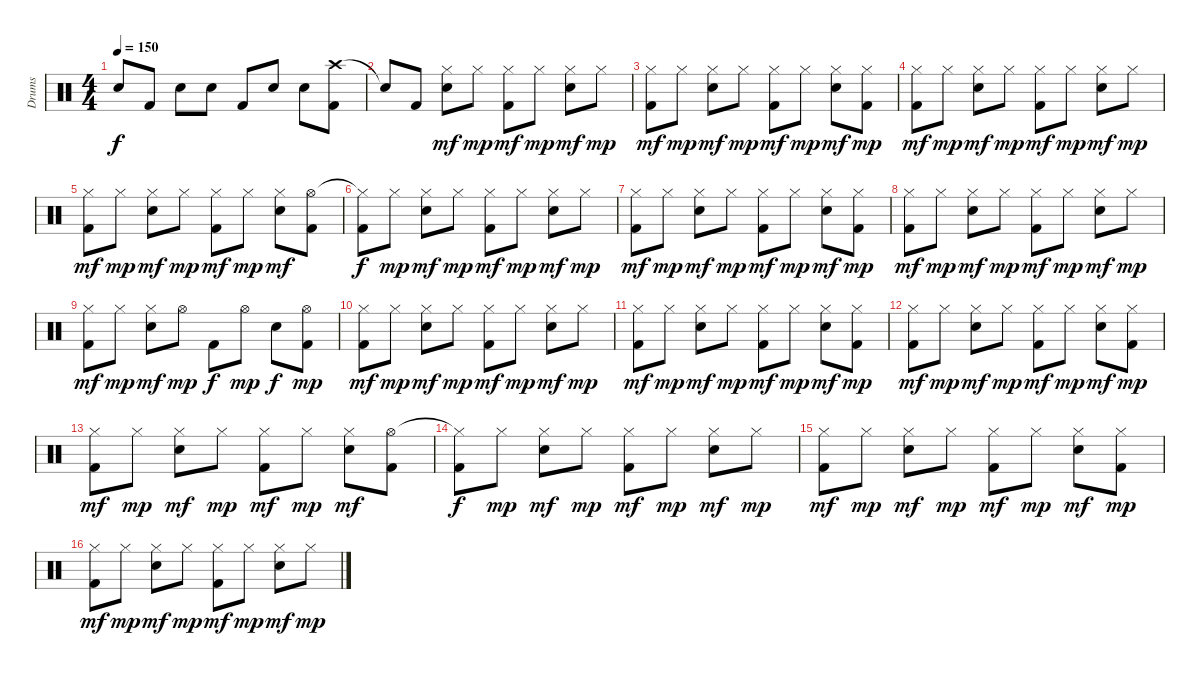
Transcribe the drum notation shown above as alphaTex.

\track ("Drums" "Drums") {instrument percussion}
\staff {score}
\articulation defaults
\ts (4 4)
\tempo 150
\clef neutral
\ks c "Electric Snare (hit)".8{dy f} "Kick (hit) 2".8 "Electric Snare (hit)".8 "Electric Snare (hit)".8 "Kick (hit) 2".8 "Electric Snare (hit)".8 "Electric Snare (hit)".8
("Crash high (hit)" "Kick (hit) 2").8 |
"Snare (hit)"{t}.8 "Kick (hit) 2".8 ("Hi-Hat (closed)" "Electric Snare (hit)").8{dy mf} "Hi-Hat (closed)".8{dy mp} ("Hi-Hat (closed)" "Kick (hit) 2").8{dy mf} "Hi-Hat (closed)".8{dy mp} ("Hi-Hat (closed)" "Electric Snare (hit)").8{dy mf} "Hi-Hat (closed)".8{dy mp} |
("Hi-Hat (closed)" "Kick (hit) 2").8{dy mf} "Hi-Hat (closed)".8{dy mp} ("Hi-Hat (closed)" "Electric Snare (hit)").8{dy mf} "Hi-Hat (closed)".8{dy mp} ("Hi-Hat (closed)" "Kick (hit) 2").8{dy mf} "Hi-Hat (closed)".8{dy mp} ("Hi-Hat (closed)" "Electric Snare (hit)").8{dy mf} ("Hi-Hat (closed)" "Kick (hit) 2").8{dy mp} |
("Hi-Hat (closed)" "Kick (hit) 2").8{dy mf} "Hi-Hat (closed)".8{dy mp} ("Hi-Hat (closed)" "Electric Snare (hit)").8{dy mf} "Hi-Hat (closed)".8{dy mp} ("Hi-Hat (closed)" "Kick (hit) 2").8{dy mf} "Hi-Hat (closed)".8{dy mp} ("Hi-Hat (closed)" "Electric Snare (hit)").8{dy mf} "Hi-Hat (closed)".8{dy mp} |
("Hi-Hat (closed)" "Kick (hit) 2").8{dy mf} "Hi-Hat (closed)".8{dy mp} ("Hi-Hat (closed)" "Electric Snare (hit)").8{dy mf} "Hi-Hat (closed)".8{dy mp} ("Hi-Hat (closed)" "Kick (hit) 2").8{dy mf} "Hi-Hat (closed)".8{dy mp} ("Hi-Hat (closed)" "Electric Snare (hit)").8{dy mf} ("Hi-Hat (open)" "Kick (hit) 2").8 |
("Hi-Hat (closed)"{t} "Kick (hit) 2").8{dy f} "Hi-Hat (closed)".8{dy mp} ("Hi-Hat (closed)" "Electric Snare (hit)").8{dy mf} "Hi-Hat (closed)".8{dy mp} ("Hi-Hat (closed)" "Kick (hit) 2").8{dy mf} "Hi-Hat (closed)".8{dy mp} ("Hi-Hat (closed)" "Electric Snare (hit)").8{dy mf} "Hi-Hat (closed)".8{dy mp} |
("Hi-Hat (closed)" "Kick (hit) 2").8{dy mf} "Hi-Hat (closed)".8{dy mp} ("Hi-Hat (closed)" "Electric Snare (hit)").8{dy mf} "Hi-Hat (closed)".8{dy mp} ("Hi-Hat (closed)" "Kick (hit) 2").8{dy mf} "Hi-Hat (closed)".8{dy mp} ("Hi-Hat (closed)" "Electric Snare (hit)").8{dy mf} ("Hi-Hat (closed)" "Kick (hit) 2").8{dy mp} |
("Hi-Hat (closed)" "Kick (hit) 2").8{dy mf} "Hi-Hat (closed)".8{dy mp} ("Hi-Hat (closed)" "Electric Snare (hit)").8{dy mf} "Hi-Hat (closed)".8{dy mp} ("Hi-Hat (closed)" "Kick (hit) 2").8{dy mf} "Hi-Hat (closed)".8{dy mp} ("Hi-Hat (closed)" "Electric Snare (hit)").8{dy mf} "Hi-Hat (closed)".8{dy mp} |
("Hi-Hat (closed)" "Kick (hit) 2").8{dy mf} "Hi-Hat (closed)".8{dy mp} ("Hi-Hat (closed)" "Electric Snare (hit)").8{dy mf} "Hi-Hat (open)".8{dy mp} "Kick (hit) 2".8{dy f} "Hi-Hat (open)".8{dy mp} "Electric Snare (hit)".8{dy f} ("Hi-Hat (open)" "Kick (hit) 2").8{dy mp} |
("Hi-Hat (closed)" "Kick (hit) 2").8{dy mf} "Hi-Hat (closed)".8{dy mp} ("Hi-Hat (closed)" "Electric Snare (hit)").8{dy mf} "Hi-Hat (closed)".8{dy mp} ("Hi-Hat (closed)" "Kick (hit) 2").8{dy mf} "Hi-Hat (closed)".8{dy mp} ("Hi-Hat (closed)" "Electric Snare (hit)").8{dy mf} "Hi-Hat (closed)".8{dy mp} |
("Hi-Hat (closed)" "Kick (hit) 2").8{dy mf} "Hi-Hat (closed)".8{dy mp} ("Hi-Hat (closed)" "Electric Snare (hit)").8{dy mf} "Hi-Hat (closed)".8{dy mp} ("Hi-Hat (closed)" "Kick (hit) 2").8{dy mf} "Hi-Hat (closed)".8{dy mp} ("Hi-Hat (closed)" "Electric Snare (hit)").8{dy mf} ("Hi-Hat (closed)" "Kick (hit) 2").8{dy mp} |
("Hi-Hat (closed)" "Kick (hit) 2").8{dy mf} "Hi-Hat (closed)".8{dy mp} ("Hi-Hat (closed)" "Electric Snare (hit)").8{dy mf} "Hi-Hat (closed)".8{dy mp} ("Hi-Hat (closed)" "Kick (hit) 2").8{dy mf} "Hi-Hat (closed)".8{dy mp} ("Hi-Hat (closed)" "Electric Snare (hit)").8{dy mf} ("Hi-Hat (closed)" "Kick (hit) 2").8{dy mp} |
("Hi-Hat (closed)" "Kick (hit) 2").8{dy mf} "Hi-Hat (closed)".8{dy mp} ("Hi-Hat (closed)" "Electric Snare (hit)").8{dy mf} "Hi-Hat (closed)".8{dy mp} ("Hi-Hat (closed)" "Kick (hit) 2").8{dy mf} "Hi-Hat (closed)".8{dy mp} ("Hi-Hat (closed)" "Electric Snare (hit)").8{dy mf} ("Hi-Hat (open)" "Kick (hit) 2").8 |
("Hi-Hat (closed)"{t} "Kick (hit) 2").8{dy f} "Hi-Hat (closed)".8{dy mp} ("Hi-Hat (closed)" "Electric Snare (hit)").8{dy mf} "Hi-Hat (closed)".8{dy mp} ("Hi-Hat (closed)" "Kick (hit) 2").8{dy mf} "Hi-Hat (closed)".8{dy mp} ("Hi-Hat (closed)" "Electric Snare (hit)").8{dy mf} "Hi-Hat (closed)".8{dy mp} |
("Hi-Hat (closed)" "Kick (hit) 2").8{dy mf} "Hi-Hat (closed)".8{dy mp} ("Hi-Hat (closed)" "Electric Snare (hit)").8{dy mf} "Hi-Hat (closed)".8{dy mp} ("Hi-Hat (closed)" "Kick (hit) 2").8{dy mf} "Hi-Hat (closed)".8{dy mp} ("Hi-Hat (closed)" "Electric Snare (hit)").8{dy mf} ("Hi-Hat (closed)" "Kick (hit) 2").8{dy mp} |
("Hi-Hat (closed)" "Kick (hit) 2").8{dy mf} "Hi-Hat (closed)".8{dy mp} ("Hi-Hat (closed)" "Electric Snare (hit)").8{dy mf} "Hi-Hat (closed)".8{dy mp} ("Hi-Hat (closed)" "Kick (hit) 2").8{dy mf} "Hi-Hat (closed)".8{dy mp} ("Hi-Hat (closed)" "Electric Snare (hit)").8{dy mf} "Hi-Hat (closed)".8{dy mp}
